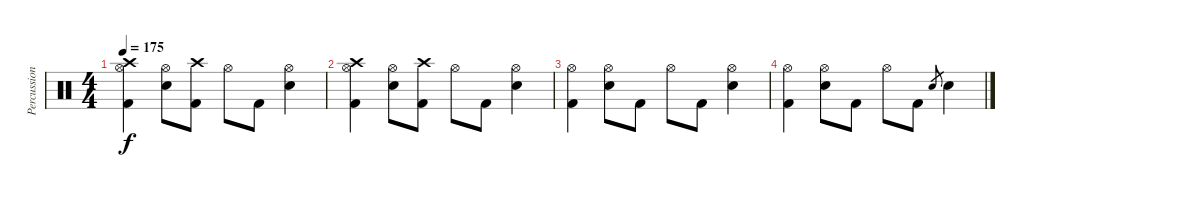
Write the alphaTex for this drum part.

\track ("Percussion" "Percussion") {instrument percussion}
\staff {score}
\articulation defaults
\ts (4 4)
\tempo 175
\clef neutral
\ks c
("Hi-Hat (open)" "Kick (hit) 2" "Crash high (hit)").4{dy f} ("Hi-Hat (open)" "Snare (hit) 2").8 ("Kick (hit) 2" "Crash high (hit)").8 "Hi-Hat (open)".8 "Kick (hit) 2".8 ("Hi-Hat (open)" "Snare (hit) 2").4 |
("Hi-Hat (open)" "Kick (hit) 2" "Crash high (hit)").4 ("Hi-Hat (open)" "Snare (hit) 2").8 ("Kick (hit) 2" "Crash high (hit)").8 "Hi-Hat (open)".8 "Kick (hit) 2".8 ("Hi-Hat (open)" "Snare (hit) 2").4 |
("Hi-Hat (open)" "Kick (hit) 2").4 ("Hi-Hat (open)" "Snare (hit) 2").8 "Kick (hit) 2".8 "Hi-Hat (open)".8 "Kick (hit) 2".8 ("Hi-Hat (open)" "Snare (hit) 2").4 |
("Hi-Hat (open)" "Kick (hit) 2").4 ("Hi-Hat (open)" "Snare (hit) 2").8 "Kick (hit) 2".8 "Hi-Hat (open)".8 "Kick (hit) 2".8 "Snare (hit) 2".8{gr} "Snare (hit) 2".4
